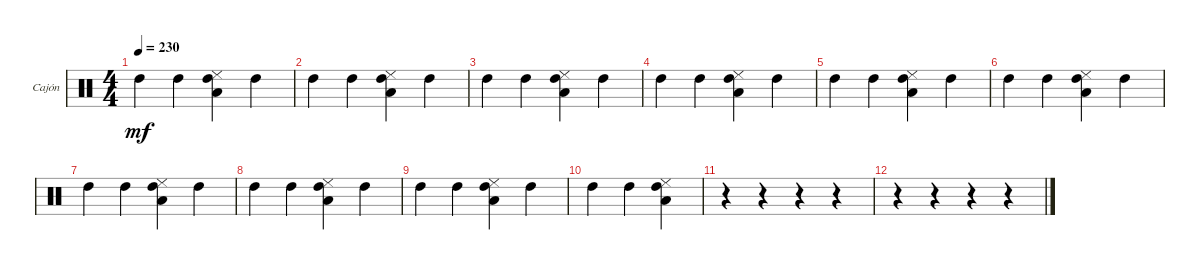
\defaultSystemsLayout 4
\bracketExtendMode groupsimilarinstruments
\firstSystemTrackNameOrientation horizontal
\otherSystemsTrackNameOrientation horizontal
\track ("Cajón (Ira)" "Cajón") {instrument percussion}
\staff {score}
\articulation defaults
\ts (4 4)
\tempo 230
\clef neutral
\scale
0.333333
\ks c "High Tom (hit)".4{dy mf} "High Tom (hit)".4
("High Tom (hit)" "Cowbell low (tip)" "Low Tom (hit)").4 "High Tom (hit)".4 |
\scale
0.333333 "High Tom (hit)".4 "High Tom (hit)".4 ("High Tom (hit)" "Cowbell low (tip)" "Low Tom (hit)").4 "High Tom (hit)".4 |
\scale
0.333333 "High Tom (hit)".4 "High Tom (hit)".4 ("High Tom (hit)" "Low Tom (hit)" "Cowbell low (tip)").4 "High Tom (hit)".4 |
\scale
0.333333 "High Tom (hit)".4 "High Tom (hit)".4 ("Low Tom (hit)" "Cowbell low (tip)" "High Tom (hit)").4 "High Tom (hit)".4 |
\scale
0.333333 "High Tom (hit)".4 "High Tom (hit)".4 ("High Tom (hit)" "Low Tom (hit)" "Cowbell low (tip)").4 "High Tom (hit)".4 |
\scale
0.333333 "High Tom (hit)".4 "High Tom (hit)".4 ("High Tom (hit)" "Low Tom (hit)" "Cowbell low (tip)").4 "High Tom (hit)".4 |
\scale
0.333333 "High Tom (hit)".4 "High Tom (hit)".4 ("High Tom (hit)" "Low Tom (hit)" "Cowbell low (tip)").4 "High Tom (hit)".4 |
\scale
0.333333 "High Tom (hit)".4 "High Tom (hit)".4 ("High Tom (hit)" "Low Tom (hit)" "Cowbell low (tip)").4 "High Tom (hit)".4 |
\scale
0.333333 "High Tom (hit)".4 "High Tom (hit)".4 ("High Tom (hit)" "Low Tom (hit)" "Cowbell low (tip)").4 "High Tom (hit)".4 |
\scale
0.333333 "High Tom (hit)".4 "High Tom (hit)".4 ("High Tom (hit)" "Low Tom (hit)" "Cowbell low (tip)").4 |
\scale
0.333333 r.4 r.4 r.4 r.4 |
r.4 r.4 r.4 r.4
